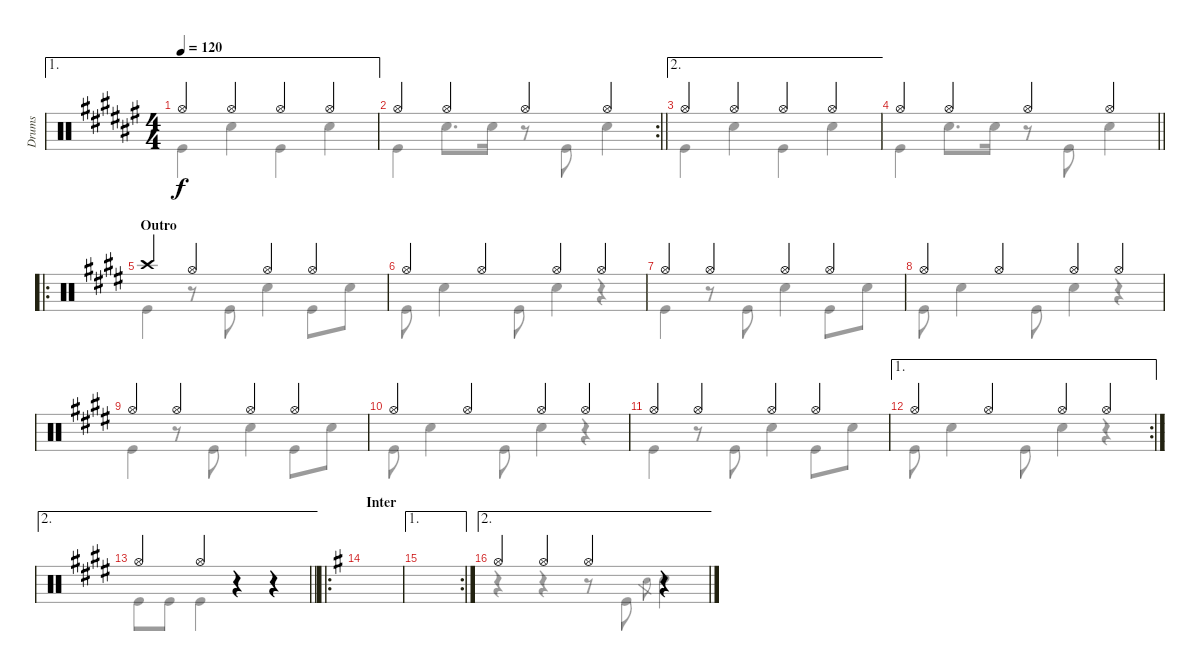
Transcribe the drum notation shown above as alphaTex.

\track ("Drums" "Drums") {instrument percussion}
\staff {score}
\articulation defaults
\voice
\ae 1
\ts (4 4)
\tempo 120
\clef neutral
\ks f# "Hi-Hat (open)".4{dy f} "Hi-Hat (open)".4 "Hi-Hat (open)".4 "Hi-Hat (open)".4
|
\rc 2
\barLineRight lightlight "Hi-Hat (open)".4 "Hi-Hat (open)".4 "Hi-Hat (open)".4 "Hi-Hat (open)".4
|
\ae 2 "Hi-Hat (open)".4 "Hi-Hat (open)".4 "Hi-Hat (open)".4 "Hi-Hat (open)".4
|
\barLineRight lightlight "Hi-Hat (open)".4 "Hi-Hat (open)".4 "Hi-Hat (open)".4 "Hi-Hat (open)".4
|
\ro
\section ("" "Outro")
\ks e "Crash high (hit)".4 "Hi-Hat (open)".4 "Hi-Hat (open)".4 "Hi-Hat (open)".4
|
"Hi-Hat (open)".4 "Hi-Hat (open)".4 "Hi-Hat (open)".4 "Hi-Hat (open)".4 |
"Hi-Hat (open)".4 "Hi-Hat (open)".4 "Hi-Hat (open)".4 "Hi-Hat (open)".4 |
"Hi-Hat (open)".4 "Hi-Hat (open)".4 "Hi-Hat (open)".4 "Hi-Hat (open)".4 |
"Hi-Hat (open)".4 "Hi-Hat (open)".4 "Hi-Hat (open)".4 "Hi-Hat (open)".4 |
"Hi-Hat (open)".4 "Hi-Hat (open)".4 "Hi-Hat (open)".4 "Hi-Hat (open)".4 |
"Hi-Hat (open)".4 "Hi-Hat (open)".4 "Hi-Hat (open)".4 "Hi-Hat (open)".4 |
\ae 1
\rc 2 "Hi-Hat (open)".4 "Hi-Hat (open)".4 "Hi-Hat (open)".4 "Hi-Hat (open)".4
|
\ae 2
\barLineRight lightlight "Hi-Hat (open)".4 "Hi-Hat (open)".4
r.4 r.4 |
\ro
\section ("" "Inter")
\ks g
|
\ae 1
\rc 2
|
\ae 2 "Hi-Hat (open)".4 "Hi-Hat (open)".4 "Hi-Hat (open)".4
r.4
\voice
\clef neutral
\ottava regular
\simile none
\ks f# "Kick (hit)".4{dy f} "Snare (hit) 2".4 "Kick (hit)".4 "Snare (hit) 2".4
|
\barLineRight lightlight "Kick (hit)".4 "Snare (hit) 2".8{d} "Snare (hit) 2".16
r.8 "Kick (hit)".8 "Snare (hit) 2".4 |
"Kick (hit)".4 "Snare (hit) 2".4 "Kick (hit)".4 "Snare (hit) 2".4 |
\barLineRight lightlight "Kick (hit)".4 "Snare (hit) 2".8{d} "Snare (hit) 2".16
r.8 "Kick (hit)".8 "Snare (hit) 2".4 |
\ks e "Kick (hit)".4
r.8 "Kick (hit)".8 "Snare (hit) 2".4 "Kick (hit)".8 "Snare (hit) 2".8 |
"Kick (hit)".8 "Snare (hit) 2".4 "Kick (hit)".8 "Snare (hit) 2".4 r.4 |
"Kick (hit)".4 r.8 "Kick (hit)".8 "Snare (hit) 2".4 "Kick (hit)".8 "Snare (hit) 2".8 |
"Kick (hit)".8 "Snare (hit) 2".4 "Kick (hit)".8 "Snare (hit) 2".4 r.4 |
"Kick (hit)".4 r.8 "Kick (hit)".8 "Snare (hit) 2".4 "Kick (hit)".8 "Snare (hit) 2".8 |
"Kick (hit)".8 "Snare (hit) 2".4 "Kick (hit)".8 "Snare (hit) 2".4 r.4 |
"Kick (hit)".4 r.8 "Kick (hit)".8 "Snare (hit) 2".4 "Kick (hit)".8 "Snare (hit) 2".8 |
"Kick (hit)".8 "Snare (hit) 2".4 "Kick (hit)".8 "Snare (hit) 2".4 r.4 |
\barLineRight lightlight "Kick (hit)".8 "Kick (hit)".8 "Kick (hit)".4
r.4 r.4 |
\ks g
|
|
r.4 r.4 r.8 "Kick (hit)".8 "Snare (hit) 2".8{gr} "Snare (hit) 2".4
